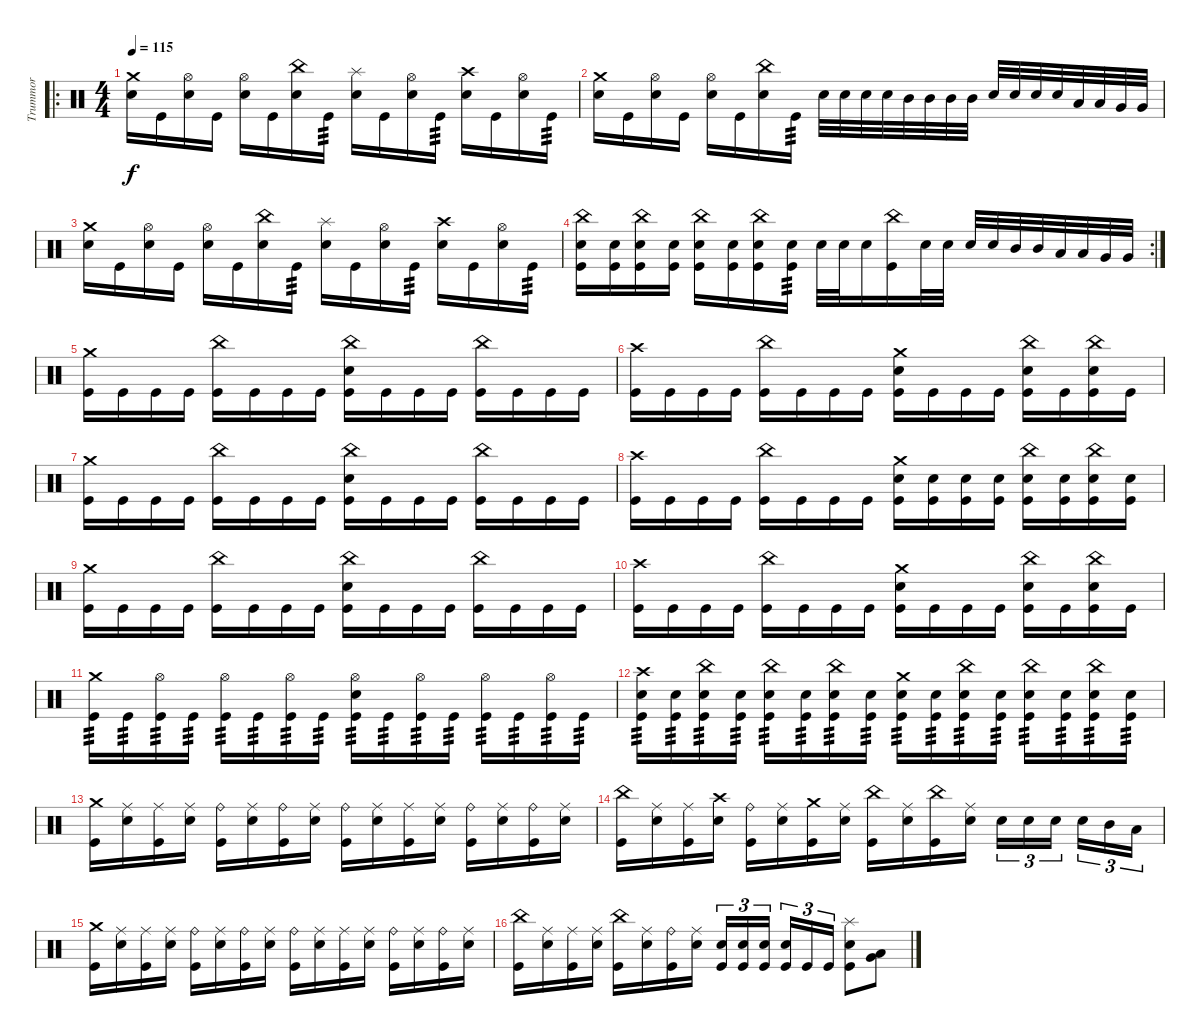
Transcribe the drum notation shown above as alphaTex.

\track ("Trummor" "Trummor") {instrument percussion}
\staff {score}
\articulation defaults
\ro
\ts (4 4)
\tempo 115
\clef neutral
\ks c
("Crash medium (hit)" "Electric Snare (hit)").16{dy f} "Kick (hit)".16 ("Hi-Hat (open)" "Electric Snare (hit)").16 "Kick (hit)".16 ("Hi-Hat (open)" "Electric Snare (hit)").16 "Kick (hit)".16 ("China (hit)" "Electric Snare (hit)").16 "Kick (hit)".16{tp 3} ("Splash (hit)" "Electric Snare (hit)").16 "Kick (hit)".16 ("Hi-Hat (open)" "Electric Snare (hit)").16 "Kick (hit)".16{tp 3} ("Crash high (hit)" "Electric Snare (hit)").16 "Kick (hit)".16 ("Hi-Hat (open)" "Electric Snare (hit)").16 "Kick (hit)".16{tp 3} |
("Crash medium (hit)" "Electric Snare (hit)").16 "Kick (hit)".16 ("Hi-Hat (open)" "Electric Snare (hit)").16 "Kick (hit)".16 ("Hi-Hat (open)" "Electric Snare (hit)").16 "Kick (hit)".16 ("China (hit)" "Electric Snare (hit)").16 "Kick (hit)".16{tp 3} "Electric Snare (hit)".32 "Electric Snare (hit)".32 "Electric Snare (hit)".32 "Electric Snare (hit)".32 "Mid Tom (hit)".32 "Mid Tom (hit)".32 "Mid Tom (hit)".32 "Mid Tom (hit)".32 "Electric Snare (hit)".32 "Electric Snare (hit)".32 "Electric Snare (hit)".32 "Electric Snare (hit)".32 "Low Tom (hit)".32 "Low Tom (hit)".32 "Very Low Tom (hit)".32 "Very Low Tom (hit)".32 |
("Crash medium (hit)" "Electric Snare (hit)").16 "Kick (hit)".16 ("Hi-Hat (open)" "Electric Snare (hit)").16 "Kick (hit)".16 ("Hi-Hat (open)" "Electric Snare (hit)").16 "Kick (hit)".16 ("China (hit)" "Electric Snare (hit)").16 "Kick (hit)".16{tp 3} ("Splash (hit)" "Electric Snare (hit)").16 "Kick (hit)".16 ("Hi-Hat (open)" "Electric Snare (hit)").16 "Kick (hit)".16{tp 3} ("Crash high (hit)" "Electric Snare (hit)").16 "Kick (hit)".16 ("Hi-Hat (open)" "Electric Snare (hit)").16 "Kick (hit)".16{tp 3} |
\rc 2
("China (hit)" "Electric Snare (hit)" "Kick (hit)").16 ("Electric Snare (hit)" "Kick (hit)").16 ("China (hit)" "Electric Snare (hit)" "Kick (hit)").16 ("Electric Snare (hit)" "Kick (hit)").16 ("China (hit)" "Electric Snare (hit)" "Kick (hit)").16 ("Electric Snare (hit)" "Kick (hit)").16 ("China (hit)" "Electric Snare (hit)" "Kick (hit)").16 ("Electric Snare (hit)" "Kick (hit)").16{tp 3} "Electric Snare (hit)".32 "Electric Snare (hit)".32 "Electric Snare (hit)".16 ("China (hit)" "Kick (hit)").16 "Electric Snare (hit)".32 "Electric Snare (hit)".32 "Electric Snare (hit)".32 "Electric Snare (hit)".32 "Mid Tom (hit)".32 "Mid Tom (hit)".32 "Low Tom (hit)".32 "Low Tom (hit)".32 "Very Low Tom (hit)".32 "Very Low Tom (hit)".32 |
("Crash medium (hit)" "Kick (hit)").16 "Kick (hit)".16 "Kick (hit)".16 "Kick (hit)".16 ("China (hit)" "Kick (hit)").16 "Kick (hit)".16 "Kick (hit)".16 "Kick (hit)".16 ("China (hit)" "Electric Snare (hit)" "Kick (hit)").16 "Kick (hit)".16 "Kick (hit)".16 "Kick (hit)".16 ("China (hit)" "Kick (hit)").16 "Kick (hit)".16 "Kick (hit)".16 "Kick (hit)".16 |
("Crash high (hit)" "Kick (hit)").16 "Kick (hit)".16 "Kick (hit)".16 "Kick (hit)".16 ("China (hit)" "Kick (hit)").16 "Kick (hit)".16 "Kick (hit)".16 "Kick (hit)".16 ("Crash medium (hit)" "Electric Snare (hit)" "Kick (hit)").16 "Kick (hit)".16 "Kick (hit)".16 "Kick (hit)".16 ("China (hit)" "Electric Snare (hit)" "Kick (hit)").16 "Kick (hit)".16 ("China (hit)" "Electric Snare (hit)" "Kick (hit)").16 "Kick (hit)".16 |
("Crash medium (hit)" "Kick (hit)").16 "Kick (hit)".16 "Kick (hit)".16 "Kick (hit)".16 ("China (hit)" "Kick (hit)").16 "Kick (hit)".16 "Kick (hit)".16 "Kick (hit)".16 ("China (hit)" "Electric Snare (hit)" "Kick (hit)").16 "Kick (hit)".16 "Kick (hit)".16 "Kick (hit)".16 ("China (hit)" "Kick (hit)").16 "Kick (hit)".16 "Kick (hit)".16 "Kick (hit)".16 |
("Crash high (hit)" "Kick (hit)").16 "Kick (hit)".16 "Kick (hit)".16 "Kick (hit)".16 ("China (hit)" "Kick (hit)").16 "Kick (hit)".16 "Kick (hit)".16 "Kick (hit)".16 ("Crash medium (hit)" "Electric Snare (hit)" "Kick (hit)").16 ("Electric Snare (hit)" "Kick (hit)").16 ("Electric Snare (hit)" "Kick (hit)").16 ("Electric Snare (hit)" "Kick (hit)").16 ("China (hit)" "Electric Snare (hit)" "Kick (hit)").16 ("Electric Snare (hit)" "Kick (hit)").16 ("China (hit)" "Electric Snare (hit)" "Kick (hit)").16 ("Electric Snare (hit)" "Kick (hit)").16 |
("Crash medium (hit)" "Kick (hit)").16 "Kick (hit)".16 "Kick (hit)".16 "Kick (hit)".16 ("China (hit)" "Kick (hit)").16 "Kick (hit)".16 "Kick (hit)".16 "Kick (hit)".16 ("China (hit)" "Electric Snare (hit)" "Kick (hit)").16 "Kick (hit)".16 "Kick (hit)".16 "Kick (hit)".16 ("China (hit)" "Kick (hit)").16 "Kick (hit)".16 "Kick (hit)".16 "Kick (hit)".16 |
("Crash high (hit)" "Kick (hit)").16 "Kick (hit)".16 "Kick (hit)".16 "Kick (hit)".16 ("China (hit)" "Kick (hit)").16 "Kick (hit)".16 "Kick (hit)".16 "Kick (hit)".16 ("Crash medium (hit)" "Electric Snare (hit)" "Kick (hit)").16 "Kick (hit)".16 "Kick (hit)".16 "Kick (hit)".16 ("China (hit)" "Electric Snare (hit)" "Kick (hit)").16 "Kick (hit)".16 ("China (hit)" "Electric Snare (hit)" "Kick (hit)").16 "Kick (hit)".16 |
("Crash medium (hit)" "Kick (hit)").16{tp 3} "Kick (hit)".16{tp 3} ("Hi-Hat (open)" "Kick (hit)").16{tp 3} "Kick (hit)".16{tp 3} ("Hi-Hat (open)" "Kick (hit)").16{tp 3} "Kick (hit)".16{tp 3} ("Hi-Hat (open)" "Kick (hit)").16{tp 3} "Kick (hit)".16{tp 3} ("Hi-Hat (open)" "Electric Snare (hit)" "Kick (hit)").16{tp 3} "Kick (hit)".16{tp 3} ("Hi-Hat (open)" "Kick (hit)").16{tp 3} "Kick (hit)".16{tp 3} ("Hi-Hat (open)" "Kick (hit)").16{tp 3} "Kick (hit)".16{tp 3} ("Hi-Hat (open)" "Kick (hit)").16{tp 3} "Kick (hit)".16{tp 3} |
("Crash high (hit)" "Electric Snare (hit)" "Kick (hit)").16{tp 3} ("Electric Snare (hit)" "Kick (hit)").16{tp 3} ("China (hit)" "Electric Snare (hit)" "Kick (hit)").16{tp 3} ("Electric Snare (hit)" "Kick (hit)").16{tp 3} ("China (hit)" "Electric Snare (hit)" "Kick (hit)").16{tp 3} ("Electric Snare (hit)" "Kick (hit)").16{tp 3} ("China (hit)" "Electric Snare (hit)" "Kick (hit)").16{tp 3} ("Electric Snare (hit)" "Kick (hit)").16{tp 3} ("Crash medium (hit)" "Electric Snare (hit)" "Kick (hit)").16{tp 3} ("Electric Snare (hit)" "Kick (hit)").16{tp 3} ("China (hit)" "Electric Snare (hit)" "Kick (hit)").16{tp 3} ("Electric Snare (hit)" "Kick (hit)").16{tp 3} ("China (hit)" "Electric Snare (hit)" "Kick (hit)").16{tp 3} ("Electric Snare (hit)" "Kick (hit)").16{tp 3} ("China (hit)" "Electric Snare (hit)" "Kick (hit)").16{tp 3} ("Electric Snare (hit)" "Kick (hit)").16{tp 3} |
("Crash medium (hit)" "Kick (hit)").16 ("Ride (middle)" "Electric Snare (hit)").16 ("Ride (middle)" "Kick (hit)").16 ("Ride (middle)" "Electric Snare (hit)").16 ("Ride (bell)" "Kick (hit)").16 ("Ride (middle)" "Electric Snare (hit)").16 ("Ride (bell)" "Kick (hit)").16 ("Ride (middle)" "Electric Snare (hit)").16 ("Ride (bell)" "Kick (hit)").16 ("Ride (middle)" "Electric Snare (hit)").16 ("Ride (middle)" "Kick (hit)").16 ("Ride (middle)" "Electric Snare (hit)").16 ("Ride (bell)" "Kick (hit)").16 ("Ride (middle)" "Electric Snare (hit)").16 ("Ride (bell)" "Kick (hit)").16 ("Ride (middle)" "Electric Snare (hit)").16 |
("China (hit)" "Kick (hit)").16 ("Ride (middle)" "Electric Snare (hit)").16 ("Ride (middle)" "Kick (hit)").16 ("Crash high (hit)" "Electric Snare (hit)").16 ("Ride (bell)" "Kick (hit)").16 ("Ride (middle)" "Electric Snare (hit)").16 ("Crash medium (hit)" "Kick (hit)").16 ("Ride (middle)" "Electric Snare (hit)").16 ("China (hit)" "Kick (hit)").16 ("Ride (middle)" "Electric Snare (hit)").16 ("China (hit)" "Kick (hit)").16 ("Ride (middle)" "Electric Snare (hit)").16 "Electric Snare (hit)".16{tu (3 2)} "Electric Snare (hit)".16{tu (3 2)} "Electric Snare (hit)".16{tu (3 2) beam splitsecondary} "Electric Snare (hit)".16{tu (3 2)} "Mid Tom (hit)".16{tu (3 2)} "Low Tom (hit)".16{tu (3 2)} |
("Crash medium (hit)" "Kick (hit)").16 ("Ride (middle)" "Electric Snare (hit)").16 ("Ride (middle)" "Kick (hit)").16 ("Ride (middle)" "Electric Snare (hit)").16 ("Ride (bell)" "Kick (hit)").16 ("Ride (middle)" "Electric Snare (hit)").16 ("Ride (bell)" "Kick (hit)").16 ("Ride (middle)" "Electric Snare (hit)").16 ("Ride (bell)" "Kick (hit)").16 ("Ride (middle)" "Electric Snare (hit)").16 ("Ride (middle)" "Kick (hit)").16 ("Ride (middle)" "Electric Snare (hit)").16 ("Ride (bell)" "Kick (hit)").16 ("Ride (middle)" "Electric Snare (hit)").16 ("Ride (bell)" "Kick (hit)").16 ("Ride (middle)" "Electric Snare (hit)").16 |
("China (hit)" "Kick (hit)").16 ("Ride (middle)" "Electric Snare (hit)").16 ("Ride (middle)" "Kick (hit)").16 ("Ride (middle)" "Electric Snare (hit)").16 ("China (hit)" "Kick (hit)").16 ("Ride (middle)" "Electric Snare (hit)").16 ("Ride (bell)" "Kick (hit)").16 ("Ride (middle)" "Electric Snare (hit)").16 ("Electric Snare (hit)" "Kick (hit)").16{tu (3 2)} ("Electric Snare (hit)" "Kick (hit)").16{tu (3 2)} ("Electric Snare (hit)" "Kick (hit)").16{tu (3 2) beam splitsecondary} ("Electric Snare (hit)" "Kick (hit)").16{tu (3 2)} "Kick (hit)".16{tu (3 2)} "Kick (hit)".16{tu (3 2)} ("Splash (hit)" "Electric Snare (hit)" "Kick (hit)").8 ("Low Tom (hit)" "Very Low Tom (hit)").8
